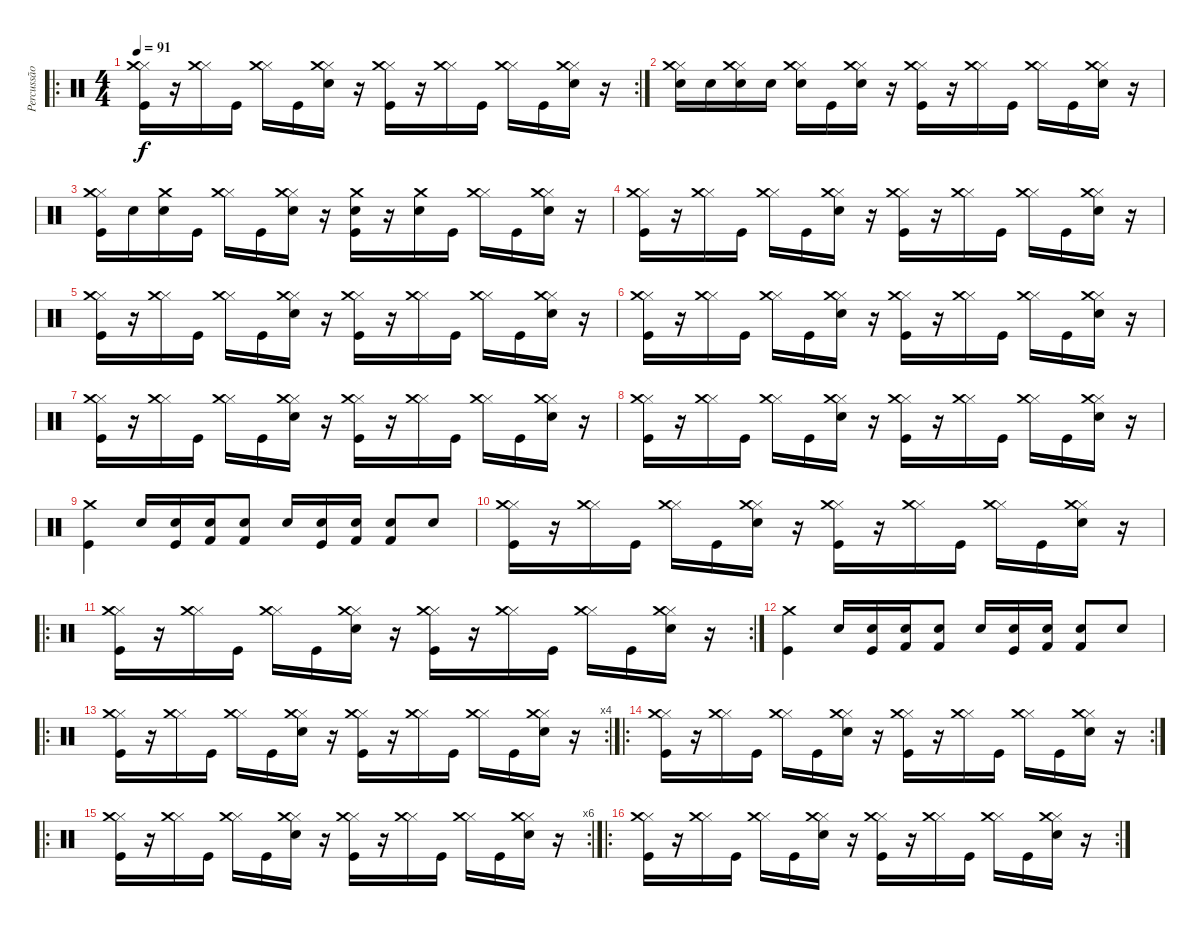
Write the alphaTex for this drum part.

\track ("Percussão" "Percussão") {instrument percussion}
\staff {score}
\articulation defaults
\ro
\rc 2
\ts (4 4)
\tempo 91
\clef neutral
\ks c
("Kick (hit)" "Hi-Hat (closed)" "Crash medium (hit)").16{dy f} r.16 ("Hi-Hat (closed)" "Crash medium (hit)").16 "Kick (hit)".16 ("Hi-Hat (closed)" "Crash medium (hit)").16 "Kick (hit)".16 ("Electric Snare (hit)" "Hi-Hat (closed)" "Crash medium (hit)").16 r.16 ("Kick (hit)" "Hi-Hat (closed)" "Crash medium (hit)").16 r.16 ("Hi-Hat (closed)" "Crash medium (hit)").16 "Kick (hit)".16 ("Hi-Hat (closed)" "Crash medium (hit)").16 "Kick (hit)".16 ("Electric Snare (hit)" "Hi-Hat (closed)" "Crash medium (hit)").16 r.16 |
("Electric Snare (hit)" "Hi-Hat (closed)" "Crash medium (hit)").16 "Electric Snare (hit)".16 ("Electric Snare (hit)" "Hi-Hat (closed)" "Crash medium (hit)").16 "Electric Snare (hit)".16 ("Electric Snare (hit)" "Hi-Hat (closed)" "Crash medium (hit)").16 "Kick (hit)".16 ("Electric Snare (hit)" "Hi-Hat (closed)" "Crash medium (hit)").16 r.16 ("Kick (hit)" "Hi-Hat (closed)" "Crash medium (hit)").16 r.16 ("Hi-Hat (closed)" "Crash medium (hit)").16 "Kick (hit)".16 ("Hi-Hat (closed)" "Crash medium (hit)").16 "Kick (hit)".16 ("Electric Snare (hit)" "Hi-Hat (closed)" "Crash medium (hit)").16 r.16 |
("Kick (hit)" "Hi-Hat (closed)" "Crash medium (hit)").16 "Electric Snare (hit)".16 ("Electric Snare (hit)" "Crash medium (hit)").16 "Kick (hit)".16 ("Hi-Hat (closed)" "Crash medium (hit)").16 "Kick (hit)".16 ("Electric Snare (hit)" "Hi-Hat (closed)" "Crash medium (hit)").16 r.16 ("Kick (hit)" "Electric Snare (hit)" "Crash medium (hit)").16 r.16 ("Electric Snare (hit)" "Crash medium (hit)").16 "Kick (hit)".16 ("Hi-Hat (closed)" "Crash medium (hit)").16 "Kick (hit)".16 ("Electric Snare (hit)" "Hi-Hat (closed)" "Crash medium (hit)").16 r.16 |
("Kick (hit)" "Hi-Hat (closed)" "Crash medium (hit)").16 r.16 ("Hi-Hat (closed)" "Crash medium (hit)").16 "Kick (hit)".16 ("Hi-Hat (closed)" "Crash medium (hit)").16 "Kick (hit)".16 ("Electric Snare (hit)" "Hi-Hat (closed)" "Crash medium (hit)").16 r.16 ("Kick (hit)" "Hi-Hat (closed)" "Crash medium (hit)").16 r.16 ("Hi-Hat (closed)" "Crash medium (hit)").16 "Kick (hit)".16 ("Hi-Hat (closed)" "Crash medium (hit)").16 "Kick (hit)".16 ("Electric Snare (hit)" "Hi-Hat (closed)" "Crash medium (hit)").16 r.16 |
("Kick (hit)" "Hi-Hat (closed)" "Crash medium (hit)").16 r.16 ("Hi-Hat (closed)" "Crash medium (hit)").16 "Kick (hit)".16 ("Hi-Hat (closed)" "Crash medium (hit)").16 "Kick (hit)".16 ("Electric Snare (hit)" "Hi-Hat (closed)" "Crash medium (hit)").16 r.16 ("Kick (hit)" "Hi-Hat (closed)" "Crash medium (hit)").16 r.16 ("Hi-Hat (closed)" "Crash medium (hit)").16 "Kick (hit)".16 ("Hi-Hat (closed)" "Crash medium (hit)").16 "Kick (hit)".16 ("Electric Snare (hit)" "Hi-Hat (closed)" "Crash medium (hit)").16 r.16 |
("Kick (hit)" "Hi-Hat (closed)" "Crash medium (hit)").16 r.16 ("Hi-Hat (closed)" "Crash medium (hit)").16 "Kick (hit)".16 ("Hi-Hat (closed)" "Crash medium (hit)").16 "Kick (hit)".16 ("Electric Snare (hit)" "Hi-Hat (closed)" "Crash medium (hit)").16 r.16 ("Kick (hit)" "Hi-Hat (closed)" "Crash medium (hit)").16 r.16 ("Hi-Hat (closed)" "Crash medium (hit)").16 "Kick (hit)".16 ("Hi-Hat (closed)" "Crash medium (hit)").16 "Kick (hit)".16 ("Electric Snare (hit)" "Hi-Hat (closed)" "Crash medium (hit)").16 r.16 |
("Kick (hit)" "Hi-Hat (closed)" "Crash medium (hit)").16 r.16 ("Hi-Hat (closed)" "Crash medium (hit)").16 "Kick (hit)".16 ("Hi-Hat (closed)" "Crash medium (hit)").16 "Kick (hit)".16 ("Electric Snare (hit)" "Hi-Hat (closed)" "Crash medium (hit)").16 r.16 ("Kick (hit)" "Hi-Hat (closed)" "Crash medium (hit)").16 r.16 ("Hi-Hat (closed)" "Crash medium (hit)").16 "Kick (hit)".16 ("Hi-Hat (closed)" "Crash medium (hit)").16 "Kick (hit)".16 ("Electric Snare (hit)" "Hi-Hat (closed)" "Crash medium (hit)").16 r.16 |
("Kick (hit)" "Hi-Hat (closed)" "Crash medium (hit)").16 r.16 ("Hi-Hat (closed)" "Crash medium (hit)").16 "Kick (hit)".16 ("Hi-Hat (closed)" "Crash medium (hit)").16 "Kick (hit)".16 ("Electric Snare (hit)" "Hi-Hat (closed)" "Crash medium (hit)").16 r.16 ("Kick (hit)" "Hi-Hat (closed)" "Crash medium (hit)").16 r.16 ("Hi-Hat (closed)" "Crash medium (hit)").16 "Kick (hit)".16 ("Hi-Hat (closed)" "Crash medium (hit)").16 "Kick (hit)".16 ("Electric Snare (hit)" "Hi-Hat (closed)" "Crash medium (hit)").16 r.16 |
("Crash medium (hit)" "Kick (hit)").4 "Electric Snare (hit)".16 ("Electric Snare (hit)" "Kick (hit)").16 ("Electric Snare (hit)" "Kick (hit) 2").16 ("Electric Snare (hit)" "Kick (hit) 2").8 "Electric Snare (hit)".16 ("Electric Snare (hit)" "Kick (hit)").16 ("Electric Snare (hit)" "Kick (hit) 2").16 ("Electric Snare (hit)" "Kick (hit) 2").8 "Electric Snare (hit)".8 |
("Kick (hit)" "Hi-Hat (closed)" "Crash medium (hit)").16 r.16 ("Hi-Hat (closed)" "Crash medium (hit)").16 "Kick (hit)".16 ("Hi-Hat (closed)" "Crash medium (hit)").16 "Kick (hit)".16 ("Electric Snare (hit)" "Hi-Hat (closed)" "Crash medium (hit)").16 r.16 ("Kick (hit)" "Hi-Hat (closed)" "Crash medium (hit)").16 r.16 ("Hi-Hat (closed)" "Crash medium (hit)").16 "Kick (hit)".16 ("Hi-Hat (closed)" "Crash medium (hit)").16 "Kick (hit)".16 ("Electric Snare (hit)" "Hi-Hat (closed)" "Crash medium (hit)").16 r.16 |
\ro
\rc 2
("Kick (hit)" "Hi-Hat (closed)" "Crash medium (hit)").16 r.16 ("Hi-Hat (closed)" "Crash medium (hit)").16 "Kick (hit)".16 ("Hi-Hat (closed)" "Crash medium (hit)").16 "Kick (hit)".16 ("Electric Snare (hit)" "Hi-Hat (closed)" "Crash medium (hit)").16 r.16 ("Kick (hit)" "Hi-Hat (closed)" "Crash medium (hit)").16 r.16 ("Hi-Hat (closed)" "Crash medium (hit)").16 "Kick (hit)".16 ("Hi-Hat (closed)" "Crash medium (hit)").16 "Kick (hit)".16 ("Electric Snare (hit)" "Hi-Hat (closed)" "Crash medium (hit)").16 r.16 |
("Crash medium (hit)" "Kick (hit)").4 "Electric Snare (hit)".16 ("Electric Snare (hit)" "Kick (hit)").16 ("Electric Snare (hit)" "Kick (hit) 2").16 ("Electric Snare (hit)" "Kick (hit) 2").8 "Electric Snare (hit)".16 ("Electric Snare (hit)" "Kick (hit)").16 ("Electric Snare (hit)" "Kick (hit) 2").16 ("Electric Snare (hit)" "Kick (hit) 2").8 "Electric Snare (hit)".8 |
\ro
\rc 4
("Kick (hit)" "Hi-Hat (closed)" "Crash medium (hit)").16 r.16 ("Hi-Hat (closed)" "Crash medium (hit)").16 "Kick (hit)".16 ("Hi-Hat (closed)" "Crash medium (hit)").16 "Kick (hit)".16 ("Electric Snare (hit)" "Hi-Hat (closed)" "Crash medium (hit)").16 r.16 ("Kick (hit)" "Hi-Hat (closed)" "Crash medium (hit)").16 r.16 ("Hi-Hat (closed)" "Crash medium (hit)").16 "Kick (hit)".16 ("Hi-Hat (closed)" "Crash medium (hit)").16 "Kick (hit)".16 ("Electric Snare (hit)" "Hi-Hat (closed)" "Crash medium (hit)").16 r.16 |
\ro
\rc 2
("Kick (hit)" "Hi-Hat (closed)" "Crash medium (hit)").16 r.16 ("Hi-Hat (closed)" "Crash medium (hit)").16 "Kick (hit)".16 ("Hi-Hat (closed)" "Crash medium (hit)").16 "Kick (hit)".16 ("Electric Snare (hit)" "Hi-Hat (closed)" "Crash medium (hit)").16 r.16 ("Kick (hit)" "Hi-Hat (closed)" "Crash medium (hit)").16 r.16 ("Hi-Hat (closed)" "Crash medium (hit)").16 "Kick (hit)".16 ("Hi-Hat (closed)" "Crash medium (hit)").16 "Kick (hit)".16 ("Electric Snare (hit)" "Hi-Hat (closed)" "Crash medium (hit)").16 r.16 |
\ro
\rc 6
("Kick (hit)" "Hi-Hat (closed)" "Crash medium (hit)").16 r.16 ("Hi-Hat (closed)" "Crash medium (hit)").16 "Kick (hit)".16 ("Hi-Hat (closed)" "Crash medium (hit)").16 "Kick (hit)".16 ("Electric Snare (hit)" "Hi-Hat (closed)" "Crash medium (hit)").16 r.16 ("Kick (hit)" "Hi-Hat (closed)" "Crash medium (hit)").16 r.16 ("Hi-Hat (closed)" "Crash medium (hit)").16 "Kick (hit)".16 ("Hi-Hat (closed)" "Crash medium (hit)").16 "Kick (hit)".16 ("Electric Snare (hit)" "Hi-Hat (closed)" "Crash medium (hit)").16 r.16 |
\ro
\rc 2
("Kick (hit)" "Hi-Hat (closed)" "Crash medium (hit)").16 r.16 ("Hi-Hat (closed)" "Crash medium (hit)").16 "Kick (hit)".16 ("Hi-Hat (closed)" "Crash medium (hit)").16 "Kick (hit)".16 ("Electric Snare (hit)" "Hi-Hat (closed)" "Crash medium (hit)").16 r.16 ("Kick (hit)" "Hi-Hat (closed)" "Crash medium (hit)").16 r.16 ("Hi-Hat (closed)" "Crash medium (hit)").16 "Kick (hit)".16 ("Hi-Hat (closed)" "Crash medium (hit)").16 "Kick (hit)".16 ("Electric Snare (hit)" "Hi-Hat (closed)" "Crash medium (hit)").16 r.16
